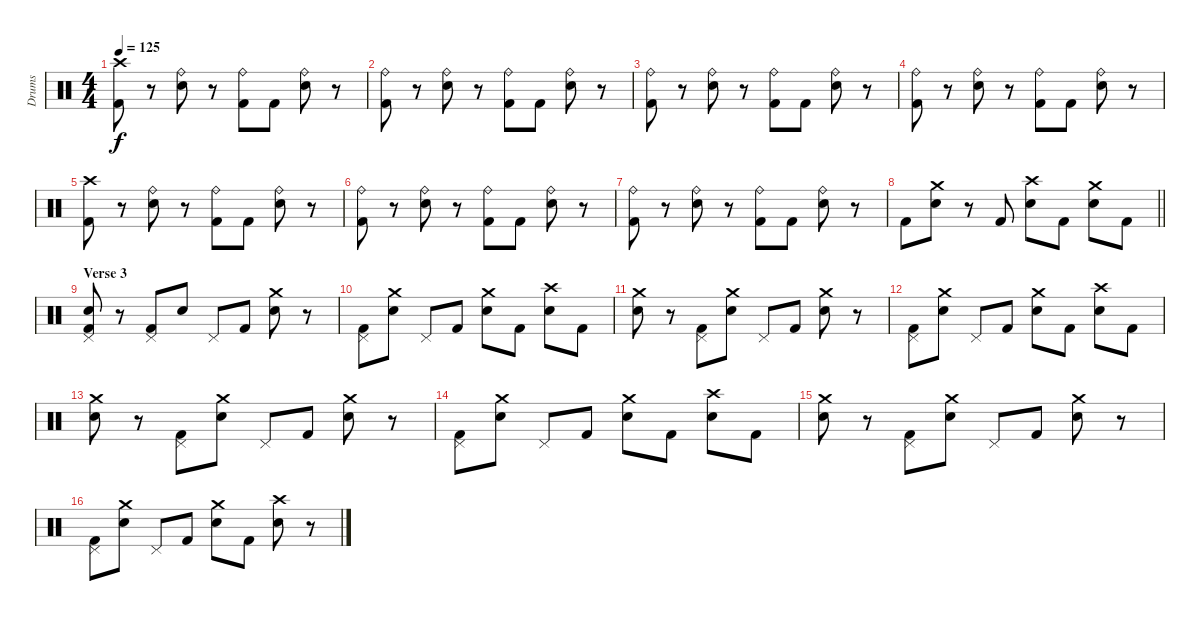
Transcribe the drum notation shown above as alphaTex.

\track ("Drums" "Drums") {instrument percussion}
\staff {score}
\articulation defaults
\ts (4 4)
\tempo 125
\clef neutral
\ks c
("Crash high (hit)" "Kick (hit) 2").8{dy f} r.8 ("Ride (bell)" "Snare (hit) 2").8 r.8 ("Ride (bell)" "Kick (hit) 2").8 "Kick (hit) 2".8 ("Ride (bell)" "Snare (hit) 2").8 r.8 |
("Ride (bell)" "Kick (hit) 2").8 r.8 ("Ride (bell)" "Snare (hit) 2").8 r.8 ("Ride (bell)" "Kick (hit) 2").8 "Kick (hit) 2".8 ("Ride (bell)" "Snare (hit) 2").8 r.8 |
("Ride (bell)" "Kick (hit) 2").8 r.8 ("Ride (bell)" "Snare (hit) 2").8 r.8 ("Ride (bell)" "Kick (hit) 2").8 "Kick (hit) 2".8 ("Ride (bell)" "Snare (hit) 2").8 r.8 |
("Ride (bell)" "Kick (hit) 2").8 r.8 ("Ride (bell)" "Snare (hit) 2").8 r.8 ("Ride (bell)" "Kick (hit) 2").8 "Kick (hit) 2".8 ("Ride (bell)" "Snare (hit) 2").8 r.8 |
("Crash high (hit)" "Kick (hit) 2").8 r.8 ("Ride (bell)" "Snare (hit) 2").8 r.8 ("Ride (bell)" "Kick (hit) 2").8 "Kick (hit) 2".8 ("Ride (bell)" "Snare (hit) 2").8 r.8 |
("Ride (bell)" "Kick (hit) 2").8 r.8 ("Ride (bell)" "Snare (hit) 2").8 r.8 ("Ride (bell)" "Kick (hit) 2").8 "Kick (hit) 2".8 ("Ride (bell)" "Snare (hit) 2").8 r.8 |
("Ride (bell)" "Kick (hit) 2").8 r.8 ("Ride (bell)" "Snare (hit) 2").8 r.8 ("Ride (bell)" "Kick (hit) 2").8 "Kick (hit) 2".8 ("Ride (bell)" "Snare (hit) 2").8 r.8 |
\barLineRight lightlight "Kick (hit) 2".8
("Crash medium (hit)" "Snare (hit) 2").8 r.8 "Kick (hit) 2".8 ("Crash high (hit)" "Snare (hit) 2").8 "Kick (hit) 2".8 ("Crash medium (hit)" "Snare (hit) 2").8 "Kick (hit) 2".8 |
\section ("" "Verse 3")
("Pedal Hi-Hat (hit)" "Snare (hit) 2" "Kick (hit) 2").8 r.8 ("Pedal Hi-Hat (hit)" "Kick (hit) 2").8 "Snare (hit) 2".8 "Pedal Hi-Hat (hit)".8 "Kick (hit) 2".8 ("Crash medium (hit)" "Snare (hit) 2").8 r.8 |
("Pedal Hi-Hat (hit)" "Kick (hit) 2").8 ("Crash medium (hit)" "Snare (hit) 2").8 "Pedal Hi-Hat (hit)".8 "Kick (hit) 2".8 ("Crash medium (hit)" "Snare (hit) 2").8 "Kick (hit) 2".8 ("Crash high (hit)" "Snare (hit) 2").8 "Kick (hit) 2".8 |
("Crash medium (hit)" "Snare (hit) 2").8 r.8 ("Pedal Hi-Hat (hit)" "Kick (hit) 2").8 ("Crash medium (hit)" "Snare (hit) 2").8 "Pedal Hi-Hat (hit)".8 "Kick (hit) 2".8 ("Crash medium (hit)" "Snare (hit) 2").8 r.8 |
("Pedal Hi-Hat (hit)" "Kick (hit) 2").8 ("Crash medium (hit)" "Snare (hit) 2").8 "Pedal Hi-Hat (hit)".8 "Kick (hit) 2".8 ("Crash medium (hit)" "Snare (hit) 2").8 "Kick (hit) 2".8 ("Crash high (hit)" "Snare (hit) 2").8 "Kick (hit) 2".8 |
("Crash medium (hit)" "Snare (hit) 2").8 r.8 ("Pedal Hi-Hat (hit)" "Kick (hit) 2").8 ("Crash medium (hit)" "Snare (hit) 2").8 "Pedal Hi-Hat (hit)".8 "Kick (hit) 2".8 ("Crash medium (hit)" "Snare (hit) 2").8 r.8 |
("Pedal Hi-Hat (hit)" "Kick (hit) 2").8 ("Crash medium (hit)" "Snare (hit) 2").8 "Pedal Hi-Hat (hit)".8 "Kick (hit) 2".8 ("Crash medium (hit)" "Snare (hit) 2").8 "Kick (hit) 2".8 ("Crash high (hit)" "Snare (hit) 2").8 "Kick (hit) 2".8 |
("Crash medium (hit)" "Snare (hit) 2").8 r.8 ("Pedal Hi-Hat (hit)" "Kick (hit) 2").8 ("Crash medium (hit)" "Snare (hit) 2").8 "Pedal Hi-Hat (hit)".8 "Kick (hit) 2".8 ("Crash medium (hit)" "Snare (hit) 2").8 r.8 |
("Pedal Hi-Hat (hit)" "Kick (hit) 2").8 ("Crash medium (hit)" "Snare (hit) 2").8 "Pedal Hi-Hat (hit)".8 "Kick (hit) 2".8 ("Crash medium (hit)" "Snare (hit) 2").8 "Kick (hit) 2".8 ("Crash high (hit)" "Snare (hit) 2").8 r.8
